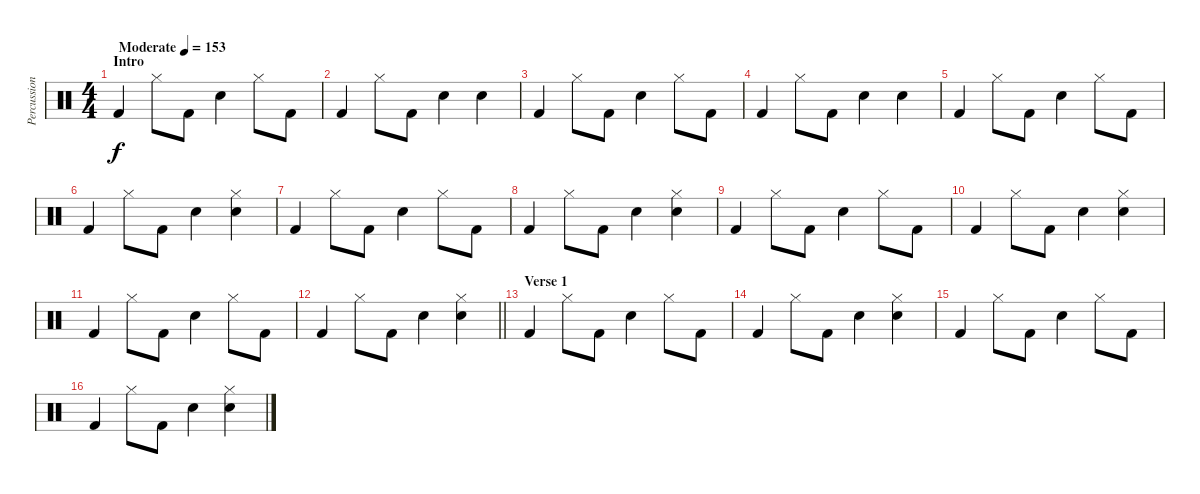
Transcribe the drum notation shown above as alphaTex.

\track ("Percussion" "Percussion") {instrument percussion}
\staff {score}
\articulation defaults
\ts (4 4)
\section ("" "Intro")
\tempo (153 "Moderate")
\clef neutral
\ks c "Kick (hit) 2".4{dy f} "Hi-Hat (closed)".8 "Kick (hit) 2".8 "Snare (hit) 2".4 "Hi-Hat (closed)".8 "Kick (hit) 2".8
|
"Kick (hit) 2".4 "Hi-Hat (closed)".8 "Kick (hit) 2".8 "Snare (hit) 2".4 "Snare (hit) 2".4 |
"Kick (hit) 2".4 "Hi-Hat (closed)".8 "Kick (hit) 2".8 "Snare (hit) 2".4 "Hi-Hat (closed)".8 "Kick (hit) 2".8 |
"Kick (hit) 2".4 "Hi-Hat (closed)".8 "Kick (hit) 2".8 "Snare (hit) 2".4 "Snare (hit) 2".4 |
"Kick (hit) 2".4 "Hi-Hat (closed)".8 "Kick (hit) 2".8 "Snare (hit) 2".4 "Hi-Hat (closed)".8 "Kick (hit) 2".8 |
"Kick (hit) 2".4 "Hi-Hat (closed)".8 "Kick (hit) 2".8 "Snare (hit) 2".4 ("Snare (hit) 2" "Hi-Hat (closed)").4 |
"Kick (hit) 2".4 "Hi-Hat (closed)".8 "Kick (hit) 2".8 "Snare (hit) 2".4 "Hi-Hat (closed)".8 "Kick (hit) 2".8 |
"Kick (hit) 2".4 "Hi-Hat (closed)".8 "Kick (hit) 2".8 "Snare (hit) 2".4 ("Snare (hit) 2" "Hi-Hat (closed)").4 |
"Kick (hit) 2".4 "Hi-Hat (closed)".8 "Kick (hit) 2".8 "Snare (hit) 2".4 "Hi-Hat (closed)".8 "Kick (hit) 2".8 |
"Kick (hit) 2".4 "Hi-Hat (closed)".8 "Kick (hit) 2".8 "Snare (hit) 2".4 ("Snare (hit) 2" "Hi-Hat (closed)").4 |
"Kick (hit) 2".4 "Hi-Hat (closed)".8 "Kick (hit) 2".8 "Snare (hit) 2".4 "Hi-Hat (closed)".8 "Kick (hit) 2".8 |
\barLineRight lightlight "Kick (hit) 2".4 "Hi-Hat (closed)".8 "Kick (hit) 2".8 "Snare (hit) 2".4
("Snare (hit) 2" "Hi-Hat (closed)").4 |
\section ("" "Verse 1")
"Kick (hit) 2".4 "Hi-Hat (closed)".8 "Kick (hit) 2".8 "Snare (hit) 2".4 "Hi-Hat (closed)".8 "Kick (hit) 2".8 |
"Kick (hit) 2".4 "Hi-Hat (closed)".8 "Kick (hit) 2".8 "Snare (hit) 2".4 ("Snare (hit) 2" "Hi-Hat (closed)").4 |
"Kick (hit) 2".4 "Hi-Hat (closed)".8 "Kick (hit) 2".8 "Snare (hit) 2".4 "Hi-Hat (closed)".8 "Kick (hit) 2".8 |
"Kick (hit) 2".4 "Hi-Hat (closed)".8 "Kick (hit) 2".8 "Snare (hit) 2".4 ("Snare (hit) 2" "Hi-Hat (closed)").4
